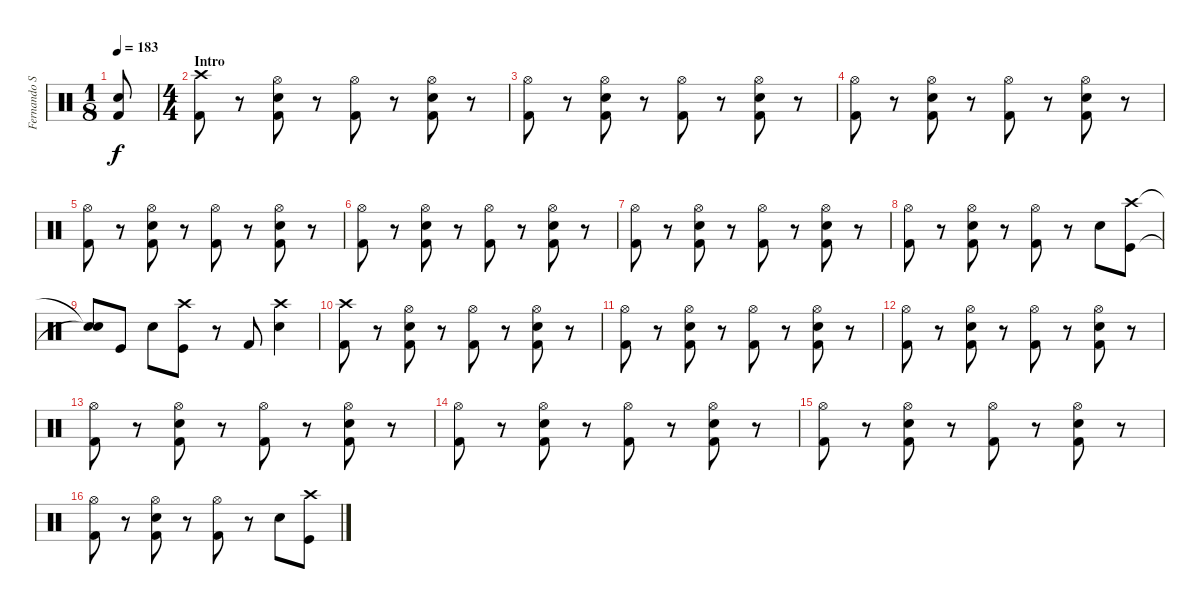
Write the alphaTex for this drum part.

\track ("Fernando Scarcella" "Fernando S") {instrument percussion}
\staff {score}
\articulation defaults
\ts (1 8)
\tempo 183
\clef neutral
\ks c
("Snare (hit) 2" "Kick (hit) 2").8{dy f} |
\ts (4 4)
\section ("" "Intro ")
("Crash high (hit)" "Kick (hit) 2").8 r.8 ("Hi-Hat (open)" "Snare (hit) 2" "Kick (hit) 2").8 r.8 ("Hi-Hat (open)" "Kick (hit) 2").8 r.8 ("Hi-Hat (open)" "Snare (hit) 2" "Kick (hit) 2").8 r.8 |
("Hi-Hat (open)" "Kick (hit) 2").8 r.8 ("Hi-Hat (open)" "Snare (hit) 2" "Kick (hit) 2").8 r.8 ("Hi-Hat (open)" "Kick (hit) 2").8 r.8 ("Hi-Hat (open)" "Snare (hit) 2" "Kick (hit) 2").8 r.8 |
("Hi-Hat (open)" "Kick (hit) 2").8 r.8 ("Hi-Hat (open)" "Snare (hit) 2" "Kick (hit) 2").8 r.8 ("Hi-Hat (open)" "Kick (hit) 2").8 r.8 ("Hi-Hat (open)" "Snare (hit) 2" "Kick (hit) 2").8 r.8 |
("Hi-Hat (open)" "Kick (hit) 2").8 r.8 ("Hi-Hat (open)" "Snare (hit) 2" "Kick (hit) 2").8 r.8 ("Hi-Hat (open)" "Kick (hit) 2").8 r.8 ("Hi-Hat (open)" "Snare (hit) 2" "Kick (hit) 2").8 r.8 |
("Hi-Hat (open)" "Kick (hit) 2").8 r.8 ("Hi-Hat (open)" "Snare (hit) 2" "Kick (hit) 2").8 r.8 ("Hi-Hat (open)" "Kick (hit) 2").8 r.8 ("Hi-Hat (open)" "Snare (hit) 2" "Kick (hit) 2").8 r.8 |
("Hi-Hat (open)" "Kick (hit) 2").8 r.8 ("Hi-Hat (open)" "Snare (hit) 2" "Kick (hit) 2").8 r.8 ("Hi-Hat (open)" "Kick (hit) 2").8 r.8 ("Hi-Hat (open)" "Snare (hit) 2" "Kick (hit) 2").8 r.8 |
("Hi-Hat (open)" "Kick (hit) 2").8 r.8 ("Hi-Hat (open)" "Snare (hit) 2" "Kick (hit) 2").8 r.8 ("Hi-Hat (open)" "Kick (hit) 2").8 r.8 "Snare (hit) 2".8 ("Crash high (hit)" "Kick (hit)").8 |
("Snare (hit)"{t} "Snare (hit)"{t}).8 "Kick (hit)".8 "Snare (hit) 2".8 ("Crash high (hit)" "Kick (hit)").8 r.8 "Kick (hit) 2".8 ("Crash high (hit)" "Snare (hit) 2").4 |
("Crash high (hit)" "Kick (hit) 2").8 r.8 ("Hi-Hat (open)" "Snare (hit) 2" "Kick (hit) 2").8 r.8 ("Hi-Hat (open)" "Kick (hit) 2").8 r.8 ("Hi-Hat (open)" "Snare (hit) 2" "Kick (hit) 2").8 r.8 |
("Hi-Hat (open)" "Kick (hit) 2").8 r.8 ("Hi-Hat (open)" "Snare (hit) 2" "Kick (hit) 2").8 r.8 ("Hi-Hat (open)" "Kick (hit) 2").8 r.8 ("Hi-Hat (open)" "Snare (hit) 2" "Kick (hit) 2").8 r.8 |
("Hi-Hat (open)" "Kick (hit) 2").8 r.8 ("Hi-Hat (open)" "Snare (hit) 2" "Kick (hit) 2").8 r.8 ("Hi-Hat (open)" "Kick (hit) 2").8 r.8 ("Hi-Hat (open)" "Snare (hit) 2" "Kick (hit) 2").8 r.8 |
("Hi-Hat (open)" "Kick (hit) 2").8 r.8 ("Hi-Hat (open)" "Snare (hit) 2" "Kick (hit) 2").8 r.8 ("Hi-Hat (open)" "Kick (hit) 2").8 r.8 ("Hi-Hat (open)" "Snare (hit) 2" "Kick (hit) 2").8 r.8 |
("Hi-Hat (open)" "Kick (hit) 2").8 r.8 ("Hi-Hat (open)" "Snare (hit) 2" "Kick (hit) 2").8 r.8 ("Hi-Hat (open)" "Kick (hit) 2").8 r.8 ("Hi-Hat (open)" "Snare (hit) 2" "Kick (hit) 2").8 r.8 |
("Hi-Hat (open)" "Kick (hit) 2").8 r.8 ("Hi-Hat (open)" "Snare (hit) 2" "Kick (hit) 2").8 r.8 ("Hi-Hat (open)" "Kick (hit) 2").8 r.8 ("Hi-Hat (open)" "Snare (hit) 2" "Kick (hit) 2").8 r.8 |
("Hi-Hat (open)" "Kick (hit) 2").8 r.8 ("Hi-Hat (open)" "Snare (hit) 2" "Kick (hit) 2").8 r.8 ("Hi-Hat (open)" "Kick (hit) 2").8 r.8 "Snare (hit) 2".8 ("Crash high (hit)" "Kick (hit)").8
